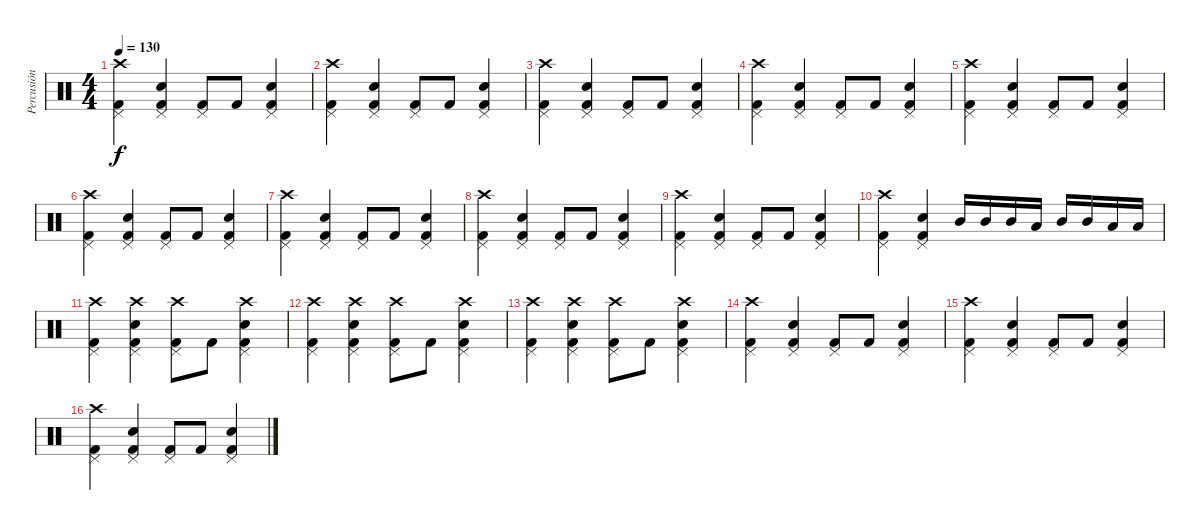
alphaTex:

\track ("Percusión" "Percusión") {instrument percussion}
\staff {score}
\articulation defaults
\ts (4 4)
\tempo 130
\clef neutral
\ks c
("Crash high (hit)" "Pedal Hi-Hat (hit)" "Kick (hit) 2").4{dy f} ("Pedal Hi-Hat (hit)" "Electric Snare (hit)" "Kick (hit) 2").4 ("Pedal Hi-Hat (hit)" "Kick (hit) 2").8 "Kick (hit) 2".8 ("Pedal Hi-Hat (hit)" "Kick (hit) 2" "Electric Snare (hit)").4 |
("Crash high (hit)" "Pedal Hi-Hat (hit)" "Kick (hit) 2").4 ("Pedal Hi-Hat (hit)" "Electric Snare (hit)" "Kick (hit) 2").4 ("Pedal Hi-Hat (hit)" "Kick (hit) 2").8 "Kick (hit) 2".8 ("Pedal Hi-Hat (hit)" "Kick (hit) 2" "Electric Snare (hit)").4 |
("Crash high (hit)" "Pedal Hi-Hat (hit)" "Kick (hit) 2").4 ("Pedal Hi-Hat (hit)" "Electric Snare (hit)" "Kick (hit) 2").4 ("Pedal Hi-Hat (hit)" "Kick (hit) 2").8 "Kick (hit) 2".8 ("Pedal Hi-Hat (hit)" "Kick (hit) 2" "Electric Snare (hit)").4 |
("Crash high (hit)" "Pedal Hi-Hat (hit)" "Kick (hit) 2").4 ("Pedal Hi-Hat (hit)" "Electric Snare (hit)" "Kick (hit) 2").4 ("Pedal Hi-Hat (hit)" "Kick (hit) 2").8 "Kick (hit) 2".8 ("Pedal Hi-Hat (hit)" "Kick (hit) 2" "Electric Snare (hit)").4 |
("Crash high (hit)" "Pedal Hi-Hat (hit)" "Kick (hit) 2").4 ("Pedal Hi-Hat (hit)" "Electric Snare (hit)" "Kick (hit) 2").4 ("Pedal Hi-Hat (hit)" "Kick (hit) 2").8 "Kick (hit) 2".8 ("Pedal Hi-Hat (hit)" "Kick (hit) 2" "Electric Snare (hit)").4 |
("Crash high (hit)" "Pedal Hi-Hat (hit)" "Kick (hit) 2").4 ("Pedal Hi-Hat (hit)" "Electric Snare (hit)" "Kick (hit) 2").4 ("Pedal Hi-Hat (hit)" "Kick (hit) 2").8 "Kick (hit) 2".8 ("Pedal Hi-Hat (hit)" "Kick (hit) 2" "Electric Snare (hit)").4 |
("Crash high (hit)" "Pedal Hi-Hat (hit)" "Kick (hit) 2").4 ("Pedal Hi-Hat (hit)" "Electric Snare (hit)" "Kick (hit) 2").4 ("Pedal Hi-Hat (hit)" "Kick (hit) 2").8 "Kick (hit) 2".8 ("Pedal Hi-Hat (hit)" "Kick (hit) 2" "Electric Snare (hit)").4 |
("Crash high (hit)" "Pedal Hi-Hat (hit)" "Kick (hit) 2").4 ("Pedal Hi-Hat (hit)" "Electric Snare (hit)" "Kick (hit) 2").4 ("Pedal Hi-Hat (hit)" "Kick (hit) 2").8 "Kick (hit) 2".8 ("Pedal Hi-Hat (hit)" "Kick (hit) 2" "Electric Snare (hit)").4 |
("Crash high (hit)" "Pedal Hi-Hat (hit)" "Kick (hit) 2").4 ("Pedal Hi-Hat (hit)" "Electric Snare (hit)" "Kick (hit) 2").4 ("Pedal Hi-Hat (hit)" "Kick (hit) 2").8 "Kick (hit) 2".8 ("Pedal Hi-Hat (hit)" "Kick (hit) 2" "Electric Snare (hit)").4 |
("Crash high (hit)" "Pedal Hi-Hat (hit)" "Kick (hit) 2").4 ("Pedal Hi-Hat (hit)" "Electric Snare (hit)" "Kick (hit) 2").4 "Mid Tom (hit)".16 "Mid Tom (hit)".16 "Mid Tom (hit)".16 "Low Tom (hit)".16 "Mid Tom (hit)".16 "Mid Tom (hit)".16 "Low Tom (hit)".16 "Low Tom (hit)".16 |
("Crash high (hit)" "Pedal Hi-Hat (hit)" "Kick (hit) 2").4 ("Crash high (hit)" "Pedal Hi-Hat (hit)" "Electric Snare (hit)" "Kick (hit) 2").4 ("Crash high (hit)" "Pedal Hi-Hat (hit)" "Kick (hit) 2").8 "Kick (hit) 2".8 ("Crash high (hit)" "Pedal Hi-Hat (hit)" "Kick (hit) 2" "Electric Snare (hit)").4 |
("Crash high (hit)" "Pedal Hi-Hat (hit)" "Kick (hit) 2").4 ("Crash high (hit)" "Pedal Hi-Hat (hit)" "Electric Snare (hit)" "Kick (hit) 2").4 ("Crash high (hit)" "Pedal Hi-Hat (hit)" "Kick (hit) 2").8 "Kick (hit) 2".8 ("Crash high (hit)" "Pedal Hi-Hat (hit)" "Kick (hit) 2" "Electric Snare (hit)").4 |
("Crash high (hit)" "Pedal Hi-Hat (hit)" "Kick (hit) 2").4 ("Crash high (hit)" "Pedal Hi-Hat (hit)" "Electric Snare (hit)" "Kick (hit) 2").4 ("Crash high (hit)" "Pedal Hi-Hat (hit)" "Kick (hit) 2").8 "Kick (hit) 2".8 ("Crash high (hit)" "Pedal Hi-Hat (hit)" "Kick (hit) 2" "Electric Snare (hit)").4 |
("Crash high (hit)" "Pedal Hi-Hat (hit)" "Kick (hit) 2").4 ("Pedal Hi-Hat (hit)" "Electric Snare (hit)" "Kick (hit) 2").4 ("Pedal Hi-Hat (hit)" "Kick (hit) 2").8 "Kick (hit) 2".8 ("Pedal Hi-Hat (hit)" "Kick (hit) 2" "Electric Snare (hit)").4 |
("Crash high (hit)" "Pedal Hi-Hat (hit)" "Kick (hit) 2").4 ("Pedal Hi-Hat (hit)" "Electric Snare (hit)" "Kick (hit) 2").4 ("Pedal Hi-Hat (hit)" "Kick (hit) 2").8 "Kick (hit) 2".8 ("Pedal Hi-Hat (hit)" "Kick (hit) 2" "Electric Snare (hit)").4 |
("Crash high (hit)" "Pedal Hi-Hat (hit)" "Kick (hit) 2").4 ("Pedal Hi-Hat (hit)" "Electric Snare (hit)" "Kick (hit) 2").4 ("Pedal Hi-Hat (hit)" "Kick (hit) 2").8 "Kick (hit) 2".8 ("Pedal Hi-Hat (hit)" "Kick (hit) 2" "Electric Snare (hit)").4
